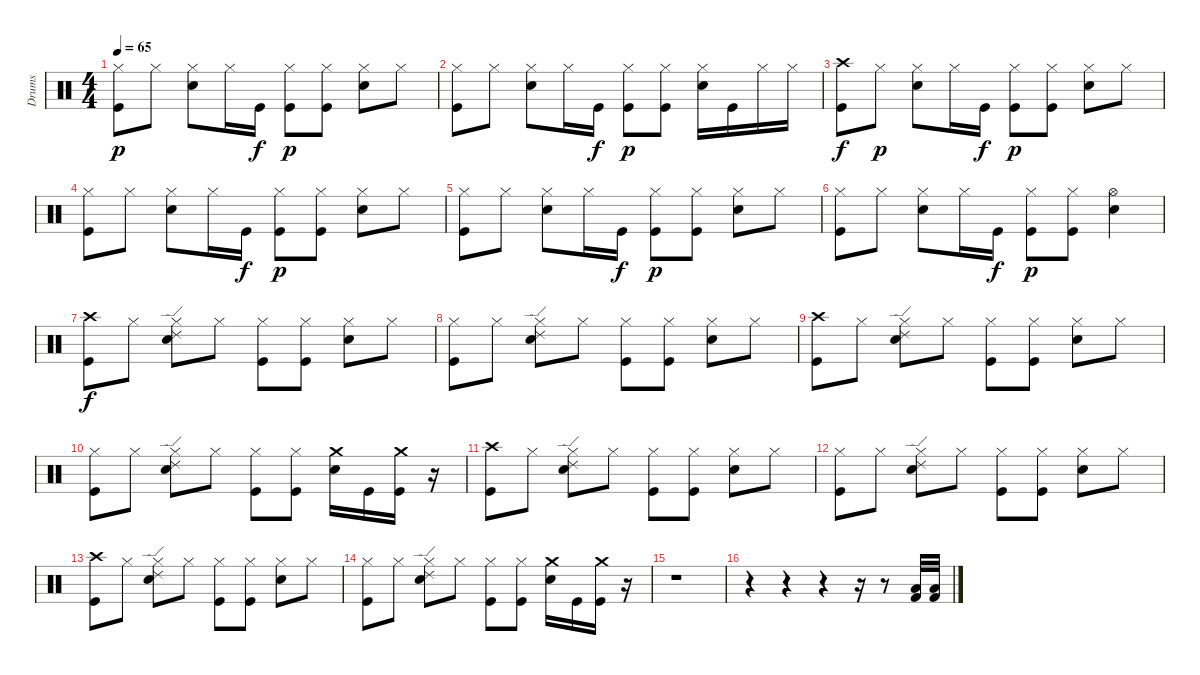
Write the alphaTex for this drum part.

\track ("Drums" "Drums") {instrument percussion}
\staff {score}
\articulation defaults
\ts (4 4)
\tempo 65
\clef neutral
\ks c
("Hi-Hat (closed)" "Kick (hit)").8{dy p} "Hi-Hat (closed)".8 ("Hi-Hat (closed)" "Snare (hit) 2").8 "Hi-Hat (closed)".16 "Kick (hit)".16{dy f} ("Hi-Hat (closed)" "Kick (hit)").8{dy p} ("Hi-Hat (closed)" "Kick (hit)").8 ("Hi-Hat (closed)" "Snare (hit) 2").8 "Hi-Hat (closed)".8 |
("Hi-Hat (closed)" "Kick (hit)").8 "Hi-Hat (closed)".8 ("Hi-Hat (closed)" "Snare (hit) 2").8 "Hi-Hat (closed)".16 "Kick (hit)".16{dy f} ("Hi-Hat (closed)" "Kick (hit)").8{dy p} ("Hi-Hat (closed)" "Kick (hit)").8 ("Hi-Hat (closed)" "Snare (hit) 2").16 "Kick (hit)".16 "Hi-Hat (closed)".16 "Hi-Hat (closed)".16 |
("Crash high (hit)" "Kick (hit)").8{dy f} "Hi-Hat (closed)".8{dy p} ("Hi-Hat (closed)" "Snare (hit) 2").8 "Hi-Hat (closed)".16 "Kick (hit)".16{dy f} ("Hi-Hat (closed)" "Kick (hit)").8{dy p} ("Hi-Hat (closed)" "Kick (hit)").8 ("Hi-Hat (closed)" "Snare (hit) 2").8 "Hi-Hat (closed)".8 |
("Hi-Hat (closed)" "Kick (hit)").8 "Hi-Hat (closed)".8 ("Hi-Hat (closed)" "Snare (hit) 2").8 "Hi-Hat (closed)".16 "Kick (hit)".16{dy f} ("Hi-Hat (closed)" "Kick (hit)").8{dy p} ("Hi-Hat (closed)" "Kick (hit)").8 ("Hi-Hat (closed)" "Snare (hit) 2").8 "Hi-Hat (closed)".8 |
("Hi-Hat (closed)" "Kick (hit)").8 "Hi-Hat (closed)".8 ("Hi-Hat (closed)" "Snare (hit) 2").8 "Hi-Hat (closed)".16 "Kick (hit)".16{dy f} ("Hi-Hat (closed)" "Kick (hit)").8{dy p} ("Hi-Hat (closed)" "Kick (hit)").8 ("Hi-Hat (closed)" "Snare (hit) 2").8 "Hi-Hat (closed)".8 |
("Hi-Hat (closed)" "Kick (hit)").8 "Hi-Hat (closed)".8 ("Hi-Hat (closed)" "Snare (hit) 2").8 "Hi-Hat (closed)".16 "Kick (hit)".16{dy f} ("Hi-Hat (closed)" "Kick (hit)").8{dy p} ("Hi-Hat (closed)" "Kick (hit)").8 ("Hi-Hat (open)" "Snare (hit) 2").4 |
("Crash high (hit)" "Kick (hit)").8{dy f} "Hi-Hat (closed)".8 ("Hi-Hat (closed)" "Ride (edge) 2" "Snare (hit) 2").8 "Hi-Hat (closed)".8 ("Hi-Hat (closed)" "Kick (hit)").8 ("Hi-Hat (closed)" "Kick (hit)").8 ("Hi-Hat (closed)" "Snare (hit) 2").8 "Hi-Hat (closed)".8 |
("Hi-Hat (closed)" "Kick (hit)").8 "Hi-Hat (closed)".8 ("Hi-Hat (closed)" "Ride (edge) 2" "Snare (hit) 2").8 "Hi-Hat (closed)".8 ("Hi-Hat (closed)" "Kick (hit)").8 ("Hi-Hat (closed)" "Kick (hit)").8 ("Hi-Hat (closed)" "Snare (hit) 2").8 "Hi-Hat (closed)".8 |
("Crash high (hit)" "Kick (hit)").8 "Hi-Hat (closed)".8 ("Hi-Hat (closed)" "Ride (edge) 2" "Snare (hit) 2").8 "Hi-Hat (closed)".8 ("Hi-Hat (closed)" "Kick (hit)").8 ("Hi-Hat (closed)" "Kick (hit)").8 ("Hi-Hat (closed)" "Snare (hit) 2").8 "Hi-Hat (closed)".8 |
("Hi-Hat (closed)" "Kick (hit)").8 "Hi-Hat (closed)".8 ("Hi-Hat (closed)" "Ride (edge) 2" "Snare (hit) 2").8 "Hi-Hat (closed)".8 ("Hi-Hat (closed)" "Kick (hit)").8 ("Hi-Hat (closed)" "Kick (hit)").8 ("Crash medium (hit)" "Snare (hit) 2").16 "Kick (hit)".16 ("Crash medium (hit)" "Kick (hit)").16 r.16 |
("Crash high (hit)" "Kick (hit)").8 "Hi-Hat (closed)".8 ("Hi-Hat (closed)" "Ride (edge) 2" "Snare (hit) 2").8 "Hi-Hat (closed)".8 ("Hi-Hat (closed)" "Kick (hit)").8 ("Hi-Hat (closed)" "Kick (hit)").8 ("Hi-Hat (closed)" "Snare (hit) 2").8 "Hi-Hat (closed)".8 |
("Hi-Hat (closed)" "Kick (hit)").8 "Hi-Hat (closed)".8 ("Hi-Hat (closed)" "Ride (edge) 2" "Snare (hit) 2").8 "Hi-Hat (closed)".8 ("Hi-Hat (closed)" "Kick (hit)").8 ("Hi-Hat (closed)" "Kick (hit)").8 ("Hi-Hat (closed)" "Snare (hit) 2").8 "Hi-Hat (closed)".8 |
("Crash high (hit)" "Kick (hit)").8 "Hi-Hat (closed)".8 ("Hi-Hat (closed)" "Ride (edge) 2" "Snare (hit) 2").8 "Hi-Hat (closed)".8 ("Hi-Hat (closed)" "Kick (hit)").8 ("Hi-Hat (closed)" "Kick (hit)").8 ("Hi-Hat (closed)" "Snare (hit) 2").8 "Hi-Hat (closed)".8 |
("Hi-Hat (closed)" "Kick (hit)").8 "Hi-Hat (closed)".8 ("Hi-Hat (closed)" "Ride (edge) 2" "Snare (hit) 2").8 "Hi-Hat (closed)".8 ("Hi-Hat (closed)" "Kick (hit)").8 ("Hi-Hat (closed)" "Kick (hit)").8 ("Crash medium (hit)" "Snare (hit) 2").16 "Kick (hit)".16 ("Crash medium (hit)" "Kick (hit)").16 r.16 |
r.1 |
r.4 r.4 r.4 r.16 r.8 ("Low Floor Tom (hit)" "Kick (hit) 2").32 ("Low Floor Tom (hit)" "Kick (hit) 2").32
